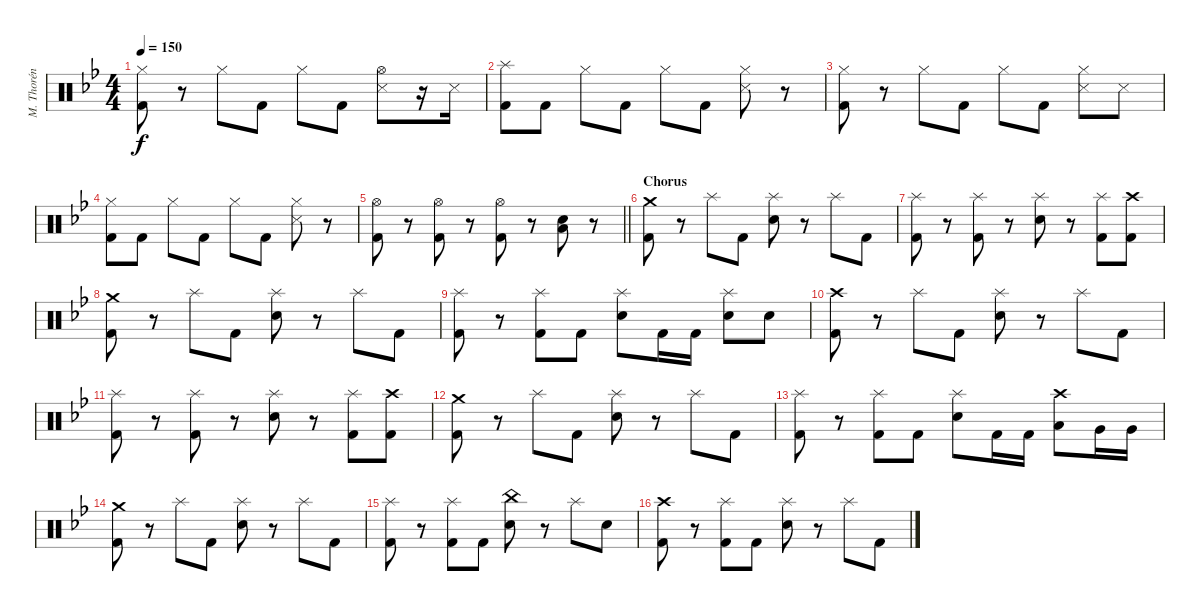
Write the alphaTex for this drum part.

\track ("M. Thorén (Drums)" "M. Thorén ") {instrument percussion}
\staff {score}
\articulation defaults
\ts (4 4)
\tempo 150
\clef neutral
\ks gminor
("Hi-Hat (closed)" "Kick (hit) 2").8{dy f} r.8 "Hi-Hat (closed)".8 "Kick (hit) 2".8 "Hi-Hat (closed)".8 "Kick (hit) 2".8 ("Hi-Hat (open)" "Snare (side stick) 3").8 r.16 "Snare (side stick) 3".16 |
("Splash (hit)" "Kick (hit) 2").8 "Kick (hit) 2".8 "Hi-Hat (closed)".8 "Kick (hit) 2".8 "Hi-Hat (closed)".8 "Kick (hit) 2".8 ("Hi-Hat (closed)" "Snare (side stick) 3").8 r.8 |
("Hi-Hat (closed)" "Kick (hit) 2").8 r.8 "Hi-Hat (closed)".8 "Kick (hit) 2".8 "Hi-Hat (closed)".8 "Kick (hit) 2".8 ("Hi-Hat (closed)" "Snare (side stick) 3").8 "Snare (side stick) 3".8 |
("Hi-Hat (closed)" "Kick (hit) 2").8 "Kick (hit) 2".8 "Hi-Hat (closed)".8 "Kick (hit) 2".8 "Hi-Hat (closed)".8 "Kick (hit) 2".8 ("Hi-Hat (closed)" "Snare (side stick) 3").8 r.8 |
\barLineRight lightlight
("Hi-Hat (open)" "Kick (hit) 2").8 r.8 ("Hi-Hat (open)" "Kick (hit) 2").8 r.8 ("Hi-Hat (open)" "Kick (hit) 2").8 r.8 ("Electric Snare (hit)" "Low Floor Tom (hit)").8 r.8 |
\section ("" "Chorus")
("Crash medium (hit)" "Kick (hit) 2").8 r.8 "Splash (hit)".8 "Kick (hit) 2".8 ("Splash (hit)" "Electric Snare (hit)").8 r.8 "Splash (hit)".8 "Kick (hit) 2".8 |
("Splash (hit)" "Kick (hit) 2").8 r.8 ("Splash (hit)" "Kick (hit) 2").8 r.8 ("Splash (hit)" "Electric Snare (hit)").8 r.8 ("Splash (hit)" "Kick (hit) 2").8 ("Crash high (hit)" "Kick (hit) 2").8 |
("Crash medium (hit)" "Kick (hit) 2").8 r.8 "Splash (hit)".8 "Kick (hit) 2".8 ("Splash (hit)" "Electric Snare (hit)").8 r.8 "Splash (hit)".8 "Kick (hit) 2".8 |
("Splash (hit)" "Kick (hit) 2").8 r.8 ("Splash (hit)" "Kick (hit) 2").8 "Kick (hit) 2".8 ("Splash (hit)" "Electric Snare (hit)").8 "Kick (hit) 2".16 "Kick (hit) 2".16 ("Splash (hit)" "Electric Snare (hit)").8 "Electric Snare (hit)".8 |
("Crash high (hit)" "Kick (hit) 2").8 r.8 "Splash (hit)".8 "Kick (hit) 2".8 ("Splash (hit)" "Electric Snare (hit)").8 r.8 "Splash (hit)".8 "Kick (hit) 2".8 |
("Splash (hit)" "Kick (hit) 2").8 r.8 ("Splash (hit)" "Kick (hit) 2").8 r.8 ("Splash (hit)" "Electric Snare (hit)").8 r.8 ("Splash (hit)" "Kick (hit) 2").8 ("Crash high (hit)" "Kick (hit) 2").8 |
("Crash medium (hit)" "Kick (hit) 2").8 r.8 "Splash (hit)".8 "Kick (hit) 2".8 ("Splash (hit)" "Electric Snare (hit)").8 r.8 "Splash (hit)".8 "Kick (hit) 2".8 |
("Splash (hit)" "Kick (hit) 2").8 r.8 ("Splash (hit)" "Kick (hit) 2").8 "Kick (hit) 2".8 ("Splash (hit)" "Electric Snare (hit)").8 "Kick (hit) 2".16 "Kick (hit) 2".16 ("Crash high (hit)" "Low Tom (hit)").8 "Very Low Tom (hit)".16 "Very Low Tom (hit)".16 |
("Crash medium (hit)" "Kick (hit) 2").8 r.8 "Splash (hit)".8 "Kick (hit) 2".8 ("Splash (hit)" "Electric Snare (hit)").8 r.8 "Splash (hit)".8 "Kick (hit) 2".8 |
("Splash (hit)" "Kick (hit) 2").8 r.8 ("Splash (hit)" "Kick (hit) 2").8 "Kick (hit) 2".8 ("China (hit)" "Electric Snare (hit)").8 r.8 "Splash (hit)".8 "Electric Snare (hit)".8 |
("Crash high (hit)" "Kick (hit) 2").8 r.8 ("Splash (hit)" "Kick (hit) 2").8 "Kick (hit) 2".8 ("Splash (hit)" "Electric Snare (hit)").8 r.8 "Splash (hit)".8 "Kick (hit) 2".8
